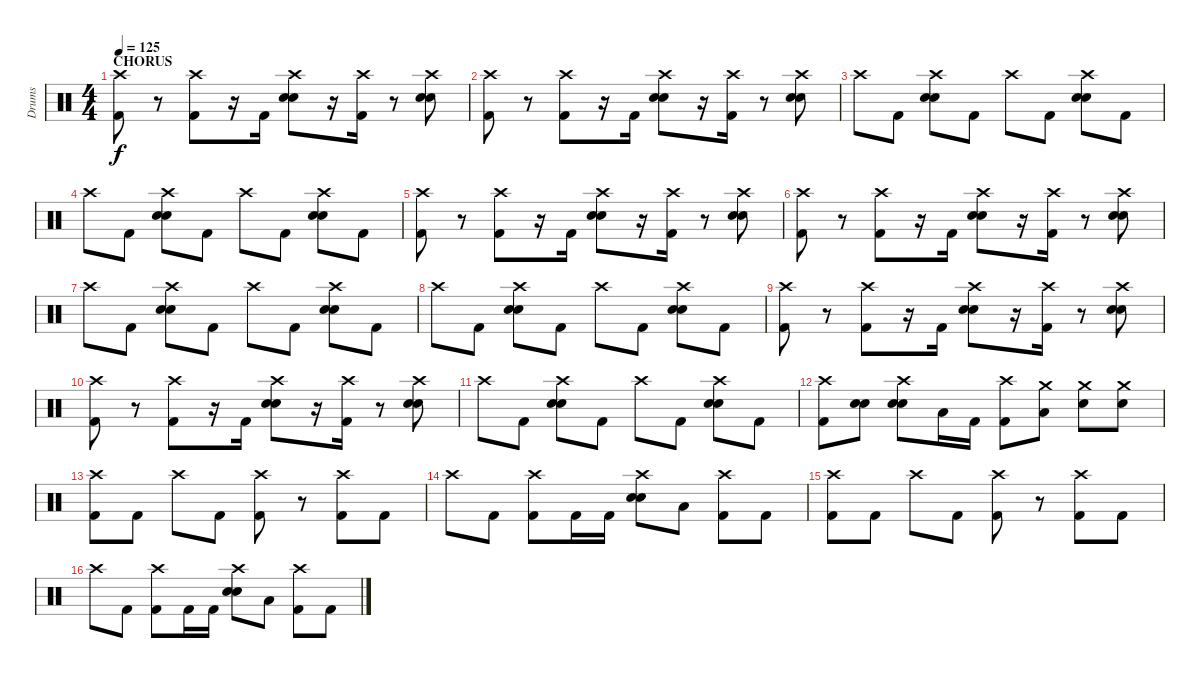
\track ("Drums" "Drums") {instrument percussion}
\staff {score}
\articulation defaults
\ts (4 4)
\section ("" "CHORUS")
\tempo 125
\clef neutral
\ks c
("Crash high (hit)" "Kick (hit) 2").8{dy f} r.8 ("Crash high (hit)" "Kick (hit) 2").8 r.16 "Kick (hit) 2".16 ("Crash high (hit)" "Snare (hit) 2" "Electric Snare (hit)").8 r.16 ("Crash high (hit)" "Kick (hit) 2").16 r.8 ("Crash high (hit)" "Snare (hit) 2" "Electric Snare (hit)").8 |
("Crash high (hit)" "Kick (hit) 2").8 r.8 ("Crash high (hit)" "Kick (hit) 2").8 r.16 "Kick (hit) 2".16 ("Crash high (hit)" "Snare (hit) 2" "Electric Snare (hit)").8 r.16 ("Crash high (hit)" "Kick (hit) 2").16 r.8 ("Crash high (hit)" "Snare (hit) 2" "Electric Snare (hit)").8 |
"Crash high (hit)".8 "Kick (hit) 2".8 ("Crash high (hit)" "Snare (hit) 2" "Electric Snare (hit)").8 "Kick (hit) 2".8 "Crash high (hit)".8 "Kick (hit) 2".8 ("Crash high (hit)" "Snare (hit) 2" "Electric Snare (hit)").8 "Kick (hit) 2".8 |
"Crash high (hit)".8 "Kick (hit) 2".8 ("Crash high (hit)" "Snare (hit) 2" "Electric Snare (hit)").8 "Kick (hit) 2".8 "Crash high (hit)".8 "Kick (hit) 2".8 ("Crash high (hit)" "Snare (hit) 2" "Electric Snare (hit)").8 "Kick (hit) 2".8 |
("Crash high (hit)" "Kick (hit) 2").8 r.8 ("Crash high (hit)" "Kick (hit) 2").8 r.16 "Kick (hit) 2".16 ("Crash high (hit)" "Snare (hit) 2" "Electric Snare (hit)").8 r.16 ("Crash high (hit)" "Kick (hit) 2").16 r.8 ("Crash high (hit)" "Snare (hit) 2" "Electric Snare (hit)").8 |
("Crash high (hit)" "Kick (hit) 2").8 r.8 ("Crash high (hit)" "Kick (hit) 2").8 r.16 "Kick (hit) 2".16 ("Crash high (hit)" "Snare (hit) 2" "Electric Snare (hit)").8 r.16 ("Crash high (hit)" "Kick (hit) 2").16 r.8 ("Crash high (hit)" "Snare (hit) 2" "Electric Snare (hit)").8 |
"Crash high (hit)".8 "Kick (hit) 2".8 ("Crash high (hit)" "Snare (hit) 2" "Electric Snare (hit)").8 "Kick (hit) 2".8 "Crash high (hit)".8 "Kick (hit) 2".8 ("Crash high (hit)" "Snare (hit) 2" "Electric Snare (hit)").8 "Kick (hit) 2".8 |
"Crash high (hit)".8 "Kick (hit) 2".8 ("Crash high (hit)" "Snare (hit) 2" "Electric Snare (hit)").8 "Kick (hit) 2".8 "Crash high (hit)".8 "Kick (hit) 2".8 ("Crash high (hit)" "Snare (hit) 2" "Electric Snare (hit)").8 "Kick (hit) 2".8 |
("Crash high (hit)" "Kick (hit) 2").8 r.8 ("Crash high (hit)" "Kick (hit) 2").8 r.16 "Kick (hit) 2".16 ("Crash high (hit)" "Snare (hit) 2" "Electric Snare (hit)").8 r.16 ("Crash high (hit)" "Kick (hit) 2").16 r.8 ("Crash high (hit)" "Snare (hit) 2" "Electric Snare (hit)").8 |
("Crash high (hit)" "Kick (hit) 2").8 r.8 ("Crash high (hit)" "Kick (hit) 2").8 r.16 "Kick (hit) 2".16 ("Crash high (hit)" "Snare (hit) 2" "Electric Snare (hit)").8 r.16 ("Crash high (hit)" "Kick (hit) 2").16 r.8 ("Crash high (hit)" "Snare (hit) 2" "Electric Snare (hit)").8 |
"Crash high (hit)".8 "Kick (hit) 2".8 ("Crash high (hit)" "Snare (hit) 2" "Electric Snare (hit)").8 "Kick (hit) 2".8 "Crash high (hit)".8 "Kick (hit) 2".8 ("Crash high (hit)" "Snare (hit) 2" "Electric Snare (hit)").8 "Kick (hit) 2".8 |
("Crash high (hit)" "Kick (hit) 2").8 ("Snare (hit) 2" "Electric Snare (hit)").8 ("Crash high (hit)" "Snare (hit) 2" "Electric Snare (hit)").8 "Low Floor Tom (hit)".16 "Kick (hit) 2".16 ("Crash high (hit)" "Kick (hit) 2").8 ("Crash medium (hit)" "Low Floor Tom (hit)").8 ("Crash medium (hit)" "Snare (hit) 2").8 ("Crash medium (hit)" "Snare (hit) 2").8 |
("Crash high (hit)" "Kick (hit) 2").8 "Kick (hit) 2".8 "Crash high (hit)".8 "Kick (hit) 2".8 ("Crash high (hit)" "Kick (hit) 2").8 r.8 ("Crash high (hit)" "Kick (hit) 2").8 "Kick (hit) 2".8 |
"Crash high (hit)".8 "Kick (hit) 2".8 ("Crash high (hit)" "Kick (hit) 2").8 "Kick (hit) 2".16 "Kick (hit) 2".16 ("Crash high (hit)" "Snare (hit) 2" "Electric Snare (hit)").8 "Low Floor Tom (hit)".8 ("Crash high (hit)" "Kick (hit) 2").8 "Kick (hit) 2".8 |
("Crash high (hit)" "Kick (hit) 2").8 "Kick (hit) 2".8 "Crash high (hit)".8 "Kick (hit) 2".8 ("Crash high (hit)" "Kick (hit) 2").8 r.8 ("Crash high (hit)" "Kick (hit) 2").8 "Kick (hit) 2".8 |
"Crash high (hit)".8 "Kick (hit) 2".8 ("Crash high (hit)" "Kick (hit) 2").8 "Kick (hit) 2".16 "Kick (hit) 2".16 ("Crash high (hit)" "Snare (hit) 2" "Electric Snare (hit)").8 "Low Floor Tom (hit)".8 ("Crash high (hit)" "Kick (hit) 2").8 "Kick (hit) 2".8
